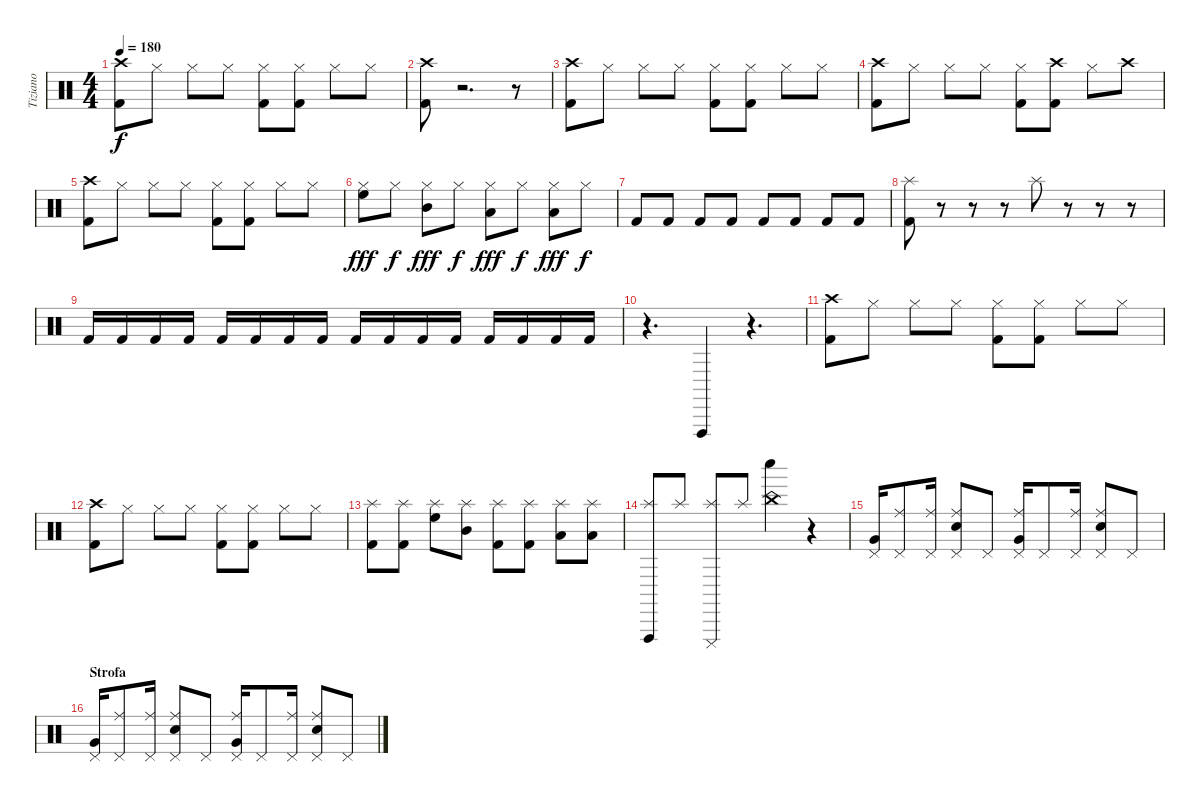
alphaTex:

\track ("Tiziano" "Tiziano") {instrument percussion}
\staff {score}
\articulation defaults
\ts (4 4)
\tempo 180
\clef neutral
\ks c
("Crash high (hit)" "Kick (hit) 2").8{dy f} "Hi-Hat (closed)".8 "Hi-Hat (closed)".8 "Hi-Hat (closed)".8 ("Hi-Hat (closed)" "Kick (hit) 2").8 ("Hi-Hat (closed)" "Kick (hit) 2").8 "Hi-Hat (closed)".8 "Hi-Hat (closed)".8 |
("Crash high (hit)" "Kick (hit) 2").8 r.2{d} r.8 |
("Crash high (hit)" "Kick (hit) 2").8 "Hi-Hat (closed)".8 "Hi-Hat (closed)".8 "Hi-Hat (closed)".8 ("Hi-Hat (closed)" "Kick (hit) 2").8 ("Hi-Hat (closed)" "Kick (hit) 2").8 "Hi-Hat (closed)".8 "Hi-Hat (closed)".8 |
("Crash high (hit)" "Kick (hit) 2").8 "Hi-Hat (closed)".8 "Hi-Hat (closed)".8 "Hi-Hat (closed)".8 ("Hi-Hat (closed)" "Kick (hit) 2").8 ("Crash high (hit)" "Kick (hit) 2").8 "Hi-Hat (closed)".8 "Crash high (hit)".8 |
("Crash high (hit)" "Kick (hit) 2").8 "Hi-Hat (closed)".8 "Hi-Hat (closed)".8 "Hi-Hat (closed)".8 ("Hi-Hat (closed)" "Kick (hit) 2").8 ("Hi-Hat (closed)" "Kick (hit) 2").8 "Hi-Hat (closed)".8 "Hi-Hat (closed)".8 |
("Hi-Hat (closed)" "High Floor Tom (hit)").8{dy fff} "Hi-Hat (closed)".8{dy f} ("Hi-Hat (closed)" "Mid Tom (hit)").8{dy fff} "Hi-Hat (closed)".8{dy f} ("Hi-Hat (closed)" "Low Tom (hit)").8{dy fff} "Hi-Hat (closed)".8{dy f} ("Hi-Hat (closed)" "Low Floor Tom (hit)").8{dy fff} "Hi-Hat (closed)".8{dy f} |
"Kick (hit) 2".8 "Kick (hit) 2".8 "Kick (hit) 2".8 "Kick (hit) 2".8 "Kick (hit) 2".8 "Kick (hit) 2".8 "Kick (hit) 2".8 "Kick (hit) 2".8 |
("Splash (hit)" "Kick (hit) 2").8 r.8 r.8 r.8 "Splash (hit)".8 r.8 r.8 r.8 |
"Kick (hit) 2".16 "Kick (hit) 2".16 "Kick (hit) 2".16 "Kick (hit) 2".16 "Kick (hit) 2".16 "Kick (hit) 2".16 "Kick (hit) 2".16 "Kick (hit) 2".16 "Kick (hit) 2".16 "Kick (hit) 2".16 "Kick (hit) 2".16 "Kick (hit) 2".16 "Kick (hit) 2".16 "Kick (hit) 2".16 "Kick (hit) 2".16 "Kick (hit) 2".16 |
r.4{d} "Vibraslap (hit)".4 r.4{d} |
("Crash high (hit)" "Kick (hit) 2").8 "Hi-Hat (closed)".8 "Hi-Hat (closed)".8 "Hi-Hat (closed)".8 ("Hi-Hat (closed)" "Kick (hit) 2").8 ("Hi-Hat (closed)" "Kick (hit) 2").8 "Hi-Hat (closed)".8 "Hi-Hat (closed)".8 |
("Crash high (hit)" "Kick (hit) 2").8 "Hi-Hat (closed)".8 "Hi-Hat (closed)".8 "Hi-Hat (closed)".8 ("Hi-Hat (closed)" "Kick (hit) 2").8 ("Hi-Hat (closed)" "Kick (hit) 2").8 "Hi-Hat (closed)".8 "Hi-Hat (closed)".8 |
("Splash (hit)" "Kick (hit) 2").8 ("Splash (hit)" "Kick (hit) 2").8 ("Splash (hit)" "High Floor Tom (hit)").8 ("Splash (hit)" "Mid Tom (hit)").8 ("Splash (hit)" "Kick (hit) 2").8 ("Splash (hit)" "Kick (hit) 2").8 ("Splash (hit)" "Low Tom (hit)").8 ("Splash (hit)" "Low Floor Tom (hit)").8 |
("Splash (hit)" "Vibraslap (hit)").8 "Splash (hit)".8 ("Splash (hit)" "Cuica (mute)").8 "Splash (hit)".8 ("China (hit)" "Whistle low (hit)").4 r.4 |
("Pedal Hi-Hat (hit)" "Very Low Tom (hit)").16 ("Pedal Hi-Hat (hit)" "Ride (middle)").8 ("Pedal Hi-Hat (hit)" "Ride (middle)").16 ("Pedal Hi-Hat (hit)" "Ride (middle)" "Snare (hit) 2").8 "Pedal Hi-Hat (hit)".8 ("Pedal Hi-Hat (hit)" "Ride (middle)" "Very Low Tom (hit)").16 "Pedal Hi-Hat (hit)".8 ("Pedal Hi-Hat (hit)" "Ride (middle)").16 ("Pedal Hi-Hat (hit)" "Ride (middle)" "Snare (hit) 2").8 "Pedal Hi-Hat (hit)".8 |
\section ("" "Strofa")
("Pedal Hi-Hat (hit)" "Very Low Tom (hit)").16 ("Pedal Hi-Hat (hit)" "Ride (middle)").8 ("Pedal Hi-Hat (hit)" "Ride (middle)").16 ("Pedal Hi-Hat (hit)" "Ride (middle)" "Snare (hit) 2").8 "Pedal Hi-Hat (hit)".8 ("Pedal Hi-Hat (hit)" "Ride (middle)" "Very Low Tom (hit)").16 "Pedal Hi-Hat (hit)".8 ("Pedal Hi-Hat (hit)" "Ride (middle)").16 ("Pedal Hi-Hat (hit)" "Ride (middle)" "Snare (hit) 2").8 "Pedal Hi-Hat (hit)".8
